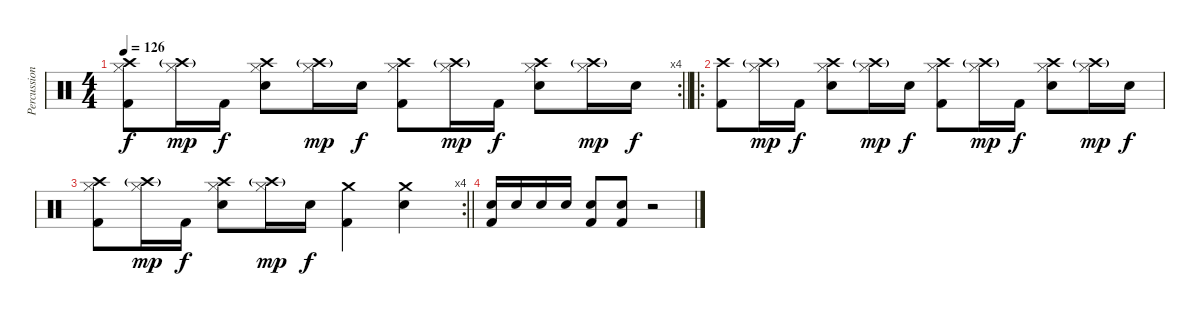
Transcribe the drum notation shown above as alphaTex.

\track ("Percussions" "Percussion") {instrument percussion}
\staff {score}
\articulation defaults
\rc 4
\ts (4 4)
\tempo 126
\clef neutral
\barLineRight lightlight
\ks c
("Crash high (hit)" "Hi-Hat (closed)" "Kick (hit) 2").8{dy f} ("Crash high (hit)"{g} "Hi-Hat (closed)").16{dy mp} "Kick (hit) 2".16{dy f} ("Crash high (hit)" "Hi-Hat (closed)" "Electric Snare (hit)").8 ("Crash high (hit)"{g} "Hi-Hat (closed)").16{dy mp} "Electric Snare (hit)".16{dy f} ("Crash high (hit)" "Hi-Hat (closed)" "Kick (hit) 2").8 ("Crash high (hit)"{g} "Hi-Hat (closed)").16{dy mp} "Kick (hit) 2".16{dy f} ("Crash high (hit)" "Hi-Hat (closed)" "Electric Snare (hit)").8 ("Crash high (hit)"{g} "Hi-Hat (closed)").16{dy mp} "Electric Snare (hit)".16{dy f} |
\ro
("Crash high (hit)" "Kick (hit) 2").8 ("Crash high (hit)"{g} "Hi-Hat (closed)").16{dy mp} "Kick (hit) 2".16{dy f} ("Crash high (hit)" "Hi-Hat (closed)" "Electric Snare (hit)").8 ("Crash high (hit)"{g} "Hi-Hat (closed)").16{dy mp} "Electric Snare (hit)".16{dy f} ("Crash high (hit)" "Hi-Hat (closed)" "Kick (hit) 2").8 ("Crash high (hit)"{g} "Hi-Hat (closed)").16{dy mp} "Kick (hit) 2".16{dy f} ("Crash high (hit)" "Hi-Hat (closed)" "Electric Snare (hit)").8 ("Crash high (hit)"{g} "Hi-Hat (closed)").16{dy mp} "Electric Snare (hit)".16{dy f} |
\rc 4
\barLineRight lightlight
("Crash high (hit)" "Hi-Hat (closed)" "Kick (hit) 2").8 ("Crash high (hit)"{g} "Hi-Hat (closed)").16{dy mp} "Kick (hit) 2".16{dy f} ("Crash high (hit)" "Hi-Hat (closed)" "Electric Snare (hit)").8 ("Crash high (hit)"{g} "Hi-Hat (closed)").16{dy mp} "Electric Snare (hit)".16{dy f} ("Crash medium (hit)" "Kick (hit) 2").4 ("Crash medium (hit)" "Electric Snare (hit)").4 |
("Electric Snare (hit)" "Kick (hit) 2").16 "Electric Snare (hit)".16 "Electric Snare (hit)".16 "Electric Snare (hit)".16 ("Electric Snare (hit)" "Kick (hit) 2").8 ("Electric Snare (hit)" "Kick (hit) 2").8 r.2
